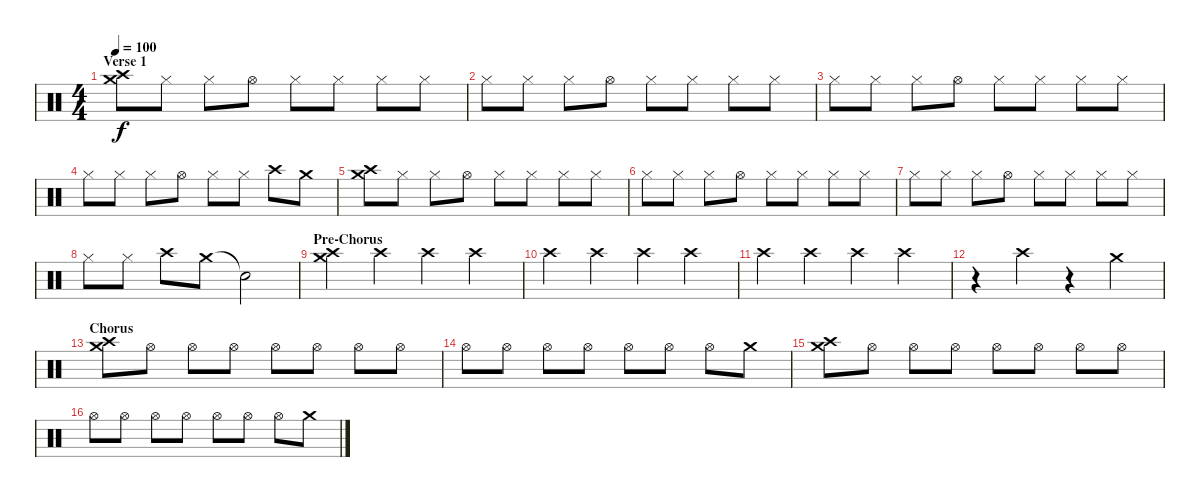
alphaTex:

\track "" {instrument percussion}
\staff {score}
\articulation defaults
\ts (4 4)
\section ("" "Verse 1")
\tempo 100
\clef neutral
\ks c
("Crash medium (hit)" "Crash high (hit)").8{dy f} "Hi-Hat (closed)".8 "Hi-Hat (closed)".8 "Hi-Hat (open)".8 "Hi-Hat (closed)".8 "Hi-Hat (closed)".8 "Hi-Hat (closed)".8 "Hi-Hat (closed)".8 |
"Hi-Hat (closed)".8 "Hi-Hat (closed)".8 "Hi-Hat (closed)".8 "Hi-Hat (open)".8 "Hi-Hat (closed)".8 "Hi-Hat (closed)".8 "Hi-Hat (closed)".8 "Hi-Hat (closed)".8 |
"Hi-Hat (closed)".8 "Hi-Hat (closed)".8 "Hi-Hat (closed)".8 "Hi-Hat (open)".8 "Hi-Hat (closed)".8 "Hi-Hat (closed)".8 "Hi-Hat (closed)".8 "Hi-Hat (closed)".8 |
"Hi-Hat (closed)".8 "Hi-Hat (closed)".8 "Hi-Hat (closed)".8 "Hi-Hat (open)".8 "Hi-Hat (closed)".8 "Hi-Hat (closed)".8 "Crash high (hit)".8 "Crash medium (hit)".8 |
("Crash medium (hit)" "Crash high (hit)").8 "Hi-Hat (closed)".8 "Hi-Hat (closed)".8 "Hi-Hat (open)".8 "Hi-Hat (closed)".8 "Hi-Hat (closed)".8 "Hi-Hat (closed)".8 "Hi-Hat (closed)".8 |
"Hi-Hat (closed)".8 "Hi-Hat (closed)".8 "Hi-Hat (closed)".8 "Hi-Hat (open)".8 "Hi-Hat (closed)".8 "Hi-Hat (closed)".8 "Hi-Hat (closed)".8 "Hi-Hat (closed)".8 |
"Hi-Hat (closed)".8 "Hi-Hat (closed)".8 "Hi-Hat (closed)".8 "Hi-Hat (open)".8 "Hi-Hat (closed)".8 "Hi-Hat (closed)".8 "Hi-Hat (closed)".8 "Hi-Hat (closed)".8 |
"Hi-Hat (closed)".8 "Hi-Hat (closed)".8 "Crash high (hit)".8 "Crash medium (hit)".8 "Snare (hit)"{t}.2 |
\section ("" "Pre-Chorus")
("Crash medium (hit)" "Crash high (hit)").4 "Crash high (hit)".4 "Crash high (hit)".4 "Crash high (hit)".4 |
"Crash high (hit)".4 "Crash high (hit)".4 "Crash high (hit)".4 "Crash high (hit)".4 |
"Crash high (hit)".4 "Crash high (hit)".4 "Crash high (hit)".4 "Crash high (hit)".4 |
r.4 "Crash high (hit)".4 r.4 "Crash medium (hit)".4 |
\section ("" "Chorus")
("Crash medium (hit)" "Crash high (hit)").8 "Hi-Hat (open)".8 "Hi-Hat (open)".8 "Hi-Hat (open)".8 "Hi-Hat (open)".8 "Hi-Hat (open)".8 "Hi-Hat (open)".8 "Hi-Hat (open)".8 |
"Hi-Hat (open)".8 "Hi-Hat (open)".8 "Hi-Hat (open)".8 "Hi-Hat (open)".8 "Hi-Hat (open)".8 "Hi-Hat (open)".8 "Hi-Hat (open)".8 "Crash medium (hit)".8 |
("Crash medium (hit)" "Crash high (hit)").8 "Hi-Hat (open)".8 "Hi-Hat (open)".8 "Hi-Hat (open)".8 "Hi-Hat (open)".8 "Hi-Hat (open)".8 "Hi-Hat (open)".8 "Hi-Hat (open)".8 |
"Hi-Hat (open)".8 "Hi-Hat (open)".8 "Hi-Hat (open)".8 "Hi-Hat (open)".8 "Hi-Hat (open)".8 "Hi-Hat (open)".8 "Hi-Hat (open)".8 "Crash medium (hit)".8
